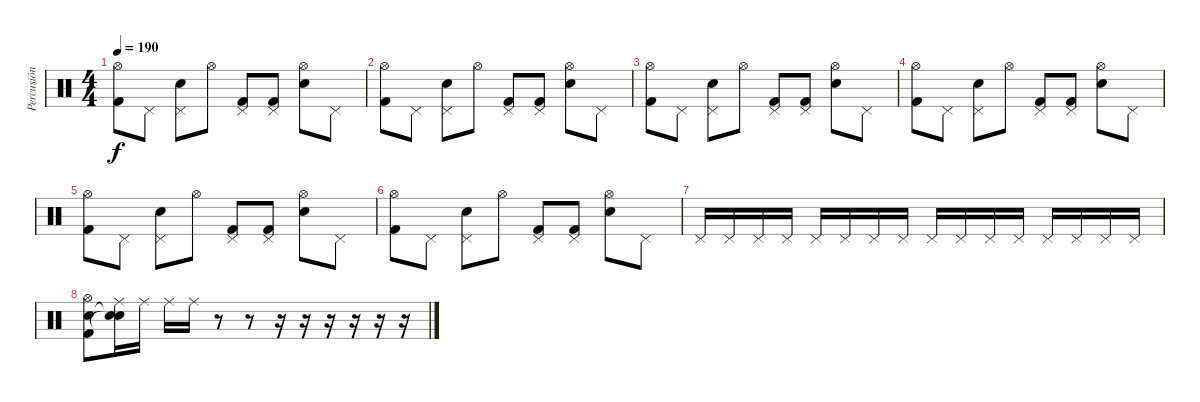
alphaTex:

\track ("Percusión" "Percusión") {instrument percussion}
\staff {score}
\articulation defaults
\ts (4 4)
\tempo 190
\clef neutral
\ks c
("Hi-Hat (open)" "Kick (hit) 2").8{dy f} "Pedal Hi-Hat (hit)".8 ("Pedal Hi-Hat (hit)" "Snare (hit) 2").8 "Hi-Hat (open)".8 ("Pedal Hi-Hat (hit)" "Kick (hit) 2").8 ("Pedal Hi-Hat (hit)" "Kick (hit) 2").8 ("Hi-Hat (open)" "Snare (hit) 2").8 "Pedal Hi-Hat (hit)".8 |
("Hi-Hat (open)" "Kick (hit) 2").8 "Pedal Hi-Hat (hit)".8 ("Pedal Hi-Hat (hit)" "Snare (hit) 2").8 "Hi-Hat (open)".8 ("Pedal Hi-Hat (hit)" "Kick (hit) 2").8 ("Pedal Hi-Hat (hit)" "Kick (hit) 2").8 ("Hi-Hat (open)" "Snare (hit) 2").8 "Pedal Hi-Hat (hit)".8 |
("Hi-Hat (open)" "Kick (hit) 2").8 "Pedal Hi-Hat (hit)".8 ("Pedal Hi-Hat (hit)" "Snare (hit) 2").8 "Hi-Hat (open)".8 ("Pedal Hi-Hat (hit)" "Kick (hit) 2").8 ("Pedal Hi-Hat (hit)" "Kick (hit) 2").8 ("Hi-Hat (open)" "Snare (hit) 2").8 "Pedal Hi-Hat (hit)".8 |
("Hi-Hat (open)" "Kick (hit) 2").8 "Pedal Hi-Hat (hit)".8 ("Pedal Hi-Hat (hit)" "Snare (hit) 2").8 "Hi-Hat (open)".8 ("Pedal Hi-Hat (hit)" "Kick (hit) 2").8 ("Pedal Hi-Hat (hit)" "Kick (hit) 2").8 ("Hi-Hat (open)" "Snare (hit) 2").8 "Pedal Hi-Hat (hit)".8 |
("Hi-Hat (open)" "Kick (hit) 2").8 "Pedal Hi-Hat (hit)".8 ("Pedal Hi-Hat (hit)" "Snare (hit) 2").8 "Hi-Hat (open)".8 ("Pedal Hi-Hat (hit)" "Kick (hit) 2").8 ("Pedal Hi-Hat (hit)" "Kick (hit) 2").8 ("Hi-Hat (open)" "Snare (hit) 2").8 "Pedal Hi-Hat (hit)".8 |
("Hi-Hat (open)" "Kick (hit) 2").8 "Pedal Hi-Hat (hit)".8 ("Pedal Hi-Hat (hit)" "Snare (hit) 2").8 "Hi-Hat (open)".8 ("Pedal Hi-Hat (hit)" "Kick (hit) 2").8 ("Pedal Hi-Hat (hit)" "Kick (hit) 2").8 ("Hi-Hat (open)" "Snare (hit) 2").8 "Pedal Hi-Hat (hit)".8 |
"Pedal Hi-Hat (hit)".16 "Pedal Hi-Hat (hit)".16 "Pedal Hi-Hat (hit)".16 "Pedal Hi-Hat (hit)".16 "Pedal Hi-Hat (hit)".16 "Pedal Hi-Hat (hit)".16 "Pedal Hi-Hat (hit)".16 "Pedal Hi-Hat (hit)".16 "Pedal Hi-Hat (hit)".16 "Pedal Hi-Hat (hit)".16 "Pedal Hi-Hat (hit)".16 "Pedal Hi-Hat (hit)".16 "Pedal Hi-Hat (hit)".16 "Pedal Hi-Hat (hit)".16 "Pedal Hi-Hat (hit)".16 "Pedal Hi-Hat (hit)".16 |
("Hi-Hat (open)" "Snare (hit) 2" "Kick (hit) 2").8 ("Ride (middle)" "Snare (hit)"{t} "Snare (hit)"{t}).16 "Ride (middle)".16 "Ride (middle)".16 "Ride (middle)".16 r.8 r.8 r.16 r.16 r.16 r.16 r.16 r.16
